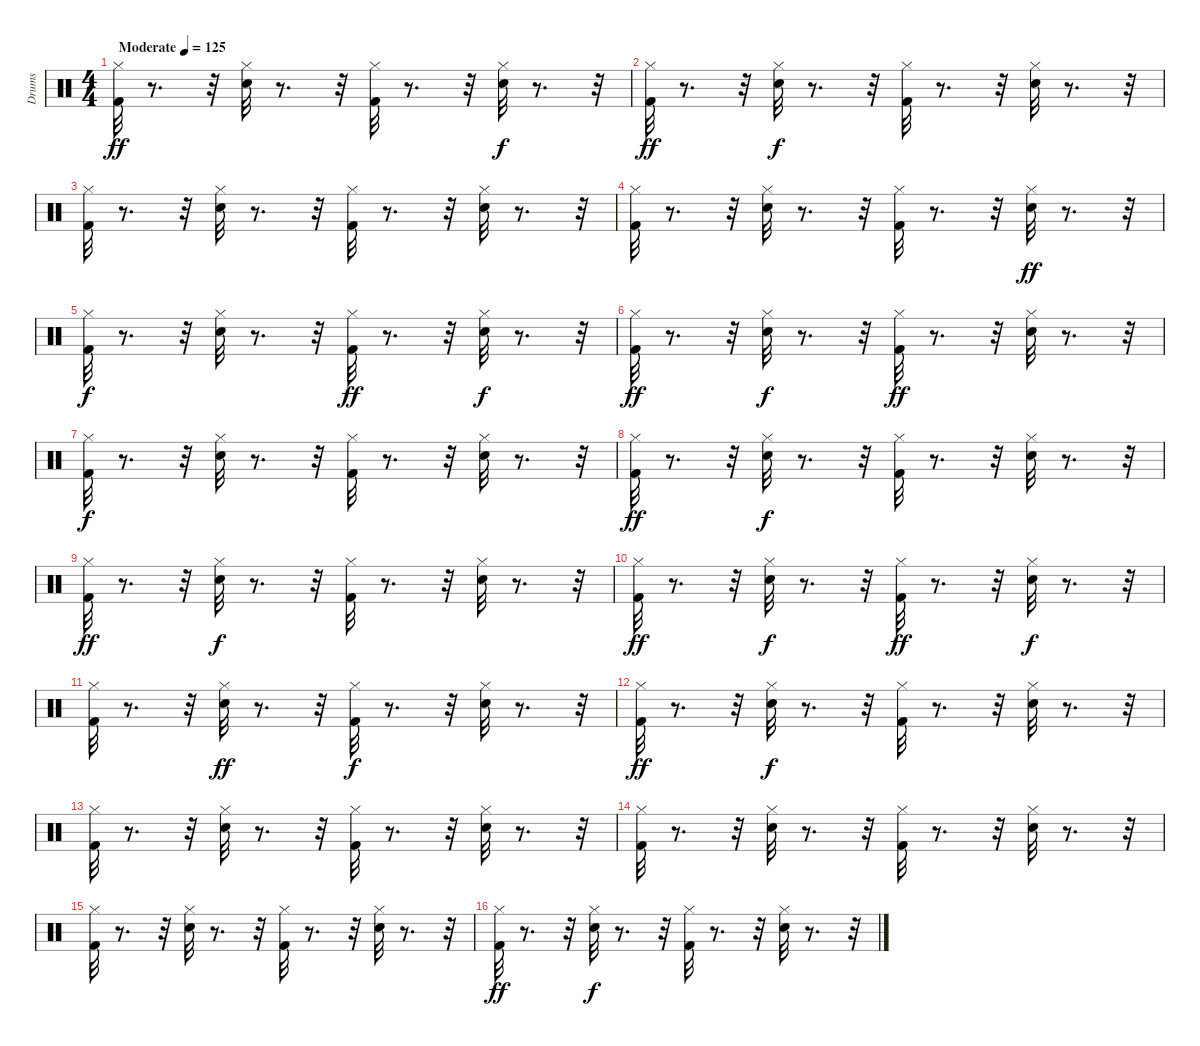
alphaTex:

\track ("Drums" "Drums") {instrument percussion}
\staff {score}
\articulation defaults
\ts (4 4)
\tempo (125 "Moderate")
\clef neutral
\ks c
("Kick (hit) 2" "Hi-Hat (closed)").32{dy ff} r.8{d} r.32 ("Snare (hit) 2" "Hi-Hat (closed)").32 r.8{d} r.32 ("Kick (hit) 2" "Hi-Hat (closed)").32 r.8{d} r.32 ("Snare (hit) 2" "Hi-Hat (closed)").32{dy f} r.8{d} r.32 |
("Hi-Hat (closed)" "Kick (hit) 2").32{dy ff} r.8{d} r.32 ("Snare (hit) 2" "Hi-Hat (closed)").32{dy f} r.8{d} r.32 ("Kick (hit) 2" "Hi-Hat (closed)").32 r.8{d} r.32 ("Snare (hit) 2" "Hi-Hat (closed)").32 r.8{d} r.32 |
("Hi-Hat (closed)" "Kick (hit) 2").32 r.8{d} r.32 ("Snare (hit) 2" "Hi-Hat (closed)").32 r.8{d} r.32 ("Hi-Hat (closed)" "Kick (hit) 2").32 r.8{d} r.32 ("Snare (hit) 2" "Hi-Hat (closed)").32 r.8{d} r.32 |
("Kick (hit) 2" "Hi-Hat (closed)").32 r.8{d} r.32 ("Snare (hit) 2" "Hi-Hat (closed)").32 r.8{d} r.32 ("Hi-Hat (closed)" "Kick (hit) 2").32 r.8{d} r.32 ("Snare (hit) 2" "Hi-Hat (closed)").32{dy ff} r.8{d} r.32 |
("Kick (hit) 2" "Hi-Hat (closed)").32{dy f} r.8{d} r.32 ("Snare (hit) 2" "Hi-Hat (closed)").32 r.8{d} r.32 ("Kick (hit) 2" "Hi-Hat (closed)").32{dy ff} r.8{d} r.32 ("Snare (hit) 2" "Hi-Hat (closed)").32{dy f} r.8{d} r.32 |
("Hi-Hat (closed)" "Kick (hit) 2").32{dy ff} r.8{d} r.32 ("Snare (hit) 2" "Hi-Hat (closed)").32{dy f} r.8{d} r.32 ("Hi-Hat (closed)" "Kick (hit) 2").32{dy ff} r.8{d} r.32 ("Hi-Hat (closed)" "Snare (hit) 2").32 r.8{d} r.32 |
("Hi-Hat (closed)" "Kick (hit) 2").32{dy f} r.8{d} r.32 ("Hi-Hat (closed)" "Snare (hit) 2").32 r.8{d} r.32 ("Kick (hit) 2" "Hi-Hat (closed)").32 r.8{d} r.32 ("Snare (hit) 2" "Hi-Hat (closed)").32 r.8{d} r.32 |
("Hi-Hat (closed)" "Kick (hit) 2").32{dy ff} r.8{d} r.32 ("Hi-Hat (closed)" "Snare (hit) 2").32{dy f} r.8{d} r.32 ("Hi-Hat (closed)" "Kick (hit) 2").32 r.8{d} r.32 ("Snare (hit) 2" "Hi-Hat (closed)").32 r.8{d} r.32 |
("Hi-Hat (closed)" "Kick (hit) 2").32{dy ff} r.8{d} r.32 ("Hi-Hat (closed)" "Snare (hit) 2").32{dy f} r.8{d} r.32 ("Hi-Hat (closed)" "Kick (hit) 2").32 r.8{d} r.32 ("Snare (hit) 2" "Hi-Hat (closed)").32 r.8{d} r.32 |
("Hi-Hat (closed)" "Kick (hit) 2").32{dy ff} r.8{d} r.32 ("Hi-Hat (closed)" "Snare (hit) 2").32{dy f} r.8{d} r.32 ("Kick (hit) 2" "Hi-Hat (closed)").32{dy ff} r.8{d} r.32 ("Hi-Hat (closed)" "Snare (hit) 2").32{dy f} r.8{d} r.32 |
("Hi-Hat (closed)" "Kick (hit) 2").32 r.8{d} r.32 ("Snare (hit) 2" "Hi-Hat (closed)").32{dy ff} r.8{d} r.32 ("Kick (hit) 2" "Hi-Hat (closed)").32{dy f} r.8{d} r.32 ("Hi-Hat (closed)" "Snare (hit) 2").32 r.8{d} r.32 |
("Hi-Hat (closed)" "Kick (hit) 2").32{dy ff} r.8{d} r.32 ("Hi-Hat (closed)" "Snare (hit) 2").32{dy f} r.8{d} r.32 ("Kick (hit) 2" "Hi-Hat (closed)").32 r.8{d} r.32 ("Hi-Hat (closed)" "Snare (hit) 2").32 r.8{d} r.32 |
("Hi-Hat (closed)" "Kick (hit) 2").32 r.8{d} r.32 ("Snare (hit) 2" "Hi-Hat (closed)").32 r.8{d} r.32 ("Hi-Hat (closed)" "Kick (hit) 2").32 r.8{d} r.32 ("Snare (hit) 2" "Hi-Hat (closed)").32 r.8{d} r.32 |
("Kick (hit) 2" "Hi-Hat (closed)").32 r.8{d} r.32 ("Hi-Hat (closed)" "Snare (hit) 2").32 r.8{d} r.32 ("Hi-Hat (closed)" "Kick (hit) 2").32 r.8{d} r.32 ("Hi-Hat (closed)" "Snare (hit) 2").32 r.8{d} r.32 |
("Hi-Hat (closed)" "Kick (hit) 2").32 r.8{d} r.32 ("Snare (hit) 2" "Hi-Hat (closed)").32 r.8{d} r.32 ("Hi-Hat (closed)" "Kick (hit) 2").32 r.8{d} r.32 ("Snare (hit) 2" "Hi-Hat (closed)").32 r.8{d} r.32 |
("Hi-Hat (closed)" "Kick (hit) 2").32{dy ff} r.8{d} r.32 ("Snare (hit) 2" "Hi-Hat (closed)").32{dy f} r.8{d} r.32 ("Kick (hit) 2" "Hi-Hat (closed)").32 r.8{d} r.32 ("Hi-Hat (closed)" "Snare (hit) 2").32 r.8{d} r.32
